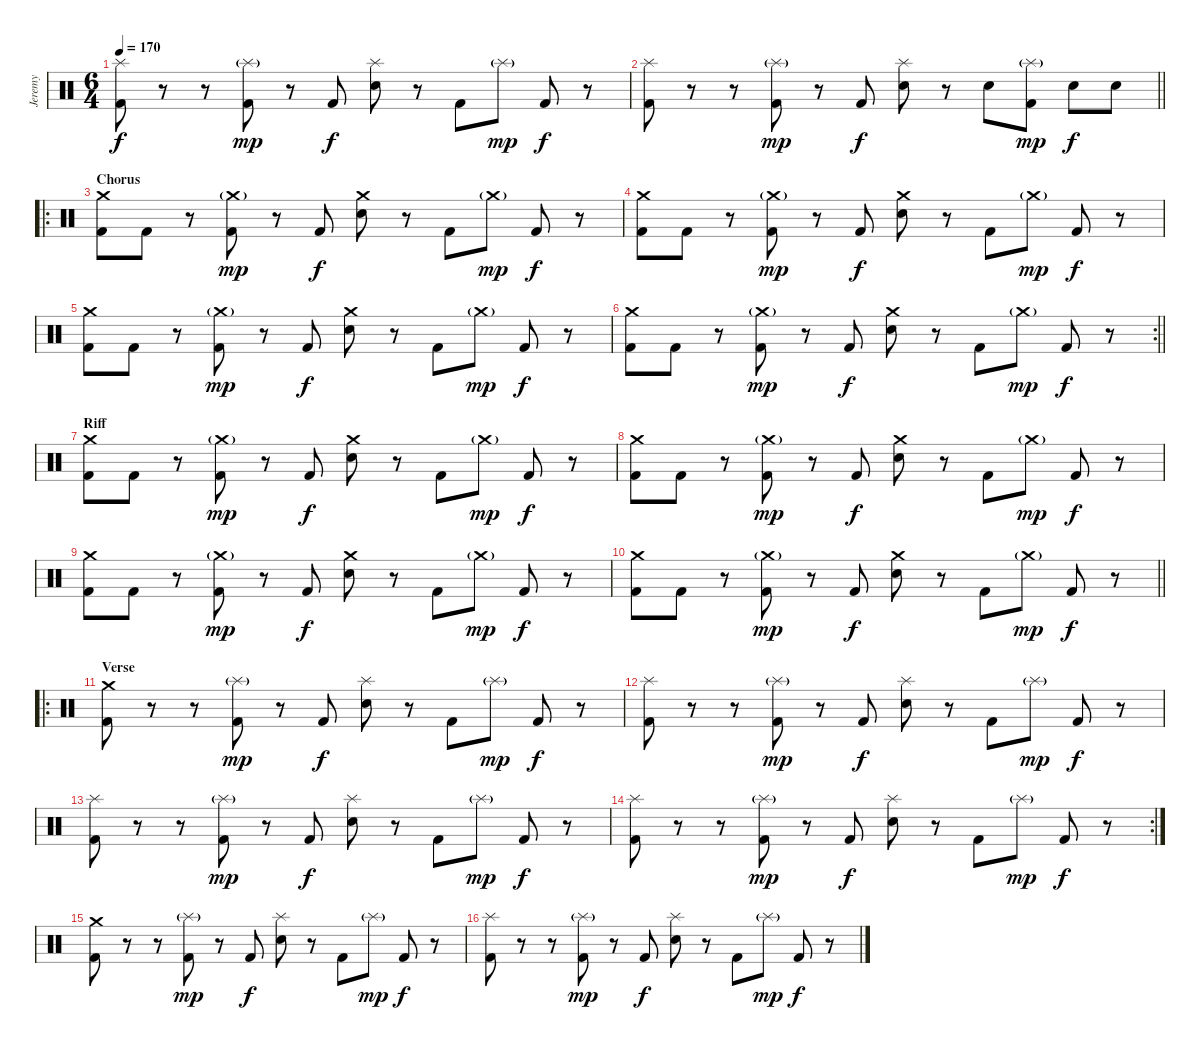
\track ("Jeremy" "Jeremy") {instrument percussion}
\staff {score}
\articulation defaults
\ts (6 4)
\tempo 170
\clef neutral
\ks c
("Splash (hit)" "Kick (hit) 2").8{dy f} r.8 r.8 ("Splash (hit)"{g} "Kick (hit) 2").8{dy mp} r.8 "Kick (hit) 2".8{dy f} ("Splash (hit)" "Electric Snare (hit)").8 r.8 "Kick (hit) 2".8 "Splash (hit)"{g}.8{dy mp} "Kick (hit) 2".8{dy f} r.8 |
\barLineRight lightlight
("Splash (hit)" "Kick (hit) 2").8 r.8 r.8 ("Splash (hit)"{g} "Kick (hit) 2").8{dy mp} r.8 "Kick (hit) 2".8{dy f} ("Splash (hit)" "Snare (hit) 2").8 r.8 "Snare (hit) 2".8 ("Splash (hit)"{g} "Kick (hit) 2").8{dy mp} "Snare (hit) 2".8{dy f} "Snare (hit) 2".8 |
\ro
\section ("" "Chorus")
("Crash medium (hit)" "Kick (hit) 2").8 "Kick (hit) 2".8 r.8 ("Crash medium (hit)"{g} "Kick (hit) 2").8{dy mp} r.8 "Kick (hit) 2".8{dy f} ("Crash medium (hit)" "Electric Snare (hit)").8 r.8 "Kick (hit) 2".8 "Crash medium (hit)"{g}.8{dy mp} "Kick (hit) 2".8{dy f} r.8 |
("Crash medium (hit)" "Kick (hit) 2").8 "Kick (hit) 2".8 r.8 ("Crash medium (hit)"{g} "Kick (hit) 2").8{dy mp} r.8 "Kick (hit) 2".8{dy f} ("Crash medium (hit)" "Electric Snare (hit)").8 r.8 "Kick (hit) 2".8 "Crash medium (hit)"{g}.8{dy mp} "Kick (hit) 2".8{dy f} r.8 |
("Crash medium (hit)" "Kick (hit) 2").8 "Kick (hit) 2".8 r.8 ("Crash medium (hit)"{g} "Kick (hit) 2").8{dy mp} r.8 "Kick (hit) 2".8{dy f} ("Crash medium (hit)" "Electric Snare (hit)").8 r.8 "Kick (hit) 2".8 "Crash medium (hit)"{g}.8{dy mp} "Kick (hit) 2".8{dy f} r.8 |
\rc 2
\barLineRight lightlight
("Crash medium (hit)" "Kick (hit) 2").8 "Kick (hit) 2".8 r.8 ("Crash medium (hit)"{g} "Kick (hit) 2").8{dy mp} r.8 "Kick (hit) 2".8{dy f} ("Crash medium (hit)" "Electric Snare (hit)").8 r.8 "Kick (hit) 2".8 "Crash medium (hit)"{g}.8{dy mp} "Kick (hit) 2".8{dy f} r.8 |
\section ("" "Riff")
("Crash medium (hit)" "Kick (hit) 2").8 "Kick (hit) 2".8 r.8 ("Crash medium (hit)"{g} "Kick (hit) 2").8{dy mp} r.8 "Kick (hit) 2".8{dy f} ("Crash medium (hit)" "Electric Snare (hit)").8 r.8 "Kick (hit) 2".8 "Crash medium (hit)"{g}.8{dy mp} "Kick (hit) 2".8{dy f} r.8 |
("Crash medium (hit)" "Kick (hit) 2").8 "Kick (hit) 2".8 r.8 ("Crash medium (hit)"{g} "Kick (hit) 2").8{dy mp} r.8 "Kick (hit) 2".8{dy f} ("Crash medium (hit)" "Electric Snare (hit)").8 r.8 "Kick (hit) 2".8 "Crash medium (hit)"{g}.8{dy mp} "Kick (hit) 2".8{dy f} r.8 |
("Crash medium (hit)" "Kick (hit) 2").8 "Kick (hit) 2".8 r.8 ("Crash medium (hit)"{g} "Kick (hit) 2").8{dy mp} r.8 "Kick (hit) 2".8{dy f} ("Crash medium (hit)" "Electric Snare (hit)").8 r.8 "Kick (hit) 2".8 "Crash medium (hit)"{g}.8{dy mp} "Kick (hit) 2".8{dy f} r.8 |
\barLineRight lightlight
("Crash medium (hit)" "Kick (hit) 2").8 "Kick (hit) 2".8 r.8 ("Crash medium (hit)"{g} "Kick (hit) 2").8{dy mp} r.8 "Kick (hit) 2".8{dy f} ("Crash medium (hit)" "Electric Snare (hit)").8 r.8 "Kick (hit) 2".8 "Crash medium (hit)"{g}.8{dy mp} "Kick (hit) 2".8{dy f} r.8 |
\ro
\section ("" "Verse")
("Crash medium (hit)" "Kick (hit) 2").8 r.8 r.8 ("Splash (hit)"{g} "Kick (hit) 2").8{dy mp} r.8 "Kick (hit) 2".8{dy f} ("Splash (hit)" "Electric Snare (hit)").8 r.8 "Kick (hit) 2".8 "Splash (hit)"{g}.8{dy mp} "Kick (hit) 2".8{dy f} r.8 |
("Splash (hit)" "Kick (hit) 2").8 r.8 r.8 ("Splash (hit)"{g} "Kick (hit) 2").8{dy mp} r.8 "Kick (hit) 2".8{dy f} ("Splash (hit)" "Electric Snare (hit)").8 r.8 "Kick (hit) 2".8 "Splash (hit)"{g}.8{dy mp} "Kick (hit) 2".8{dy f} r.8 |
("Splash (hit)" "Kick (hit) 2").8 r.8 r.8 ("Splash (hit)"{g} "Kick (hit) 2").8{dy mp} r.8 "Kick (hit) 2".8{dy f} ("Splash (hit)" "Electric Snare (hit)").8 r.8 "Kick (hit) 2".8 "Splash (hit)"{g}.8{dy mp} "Kick (hit) 2".8{dy f} r.8 |
\rc 2
("Splash (hit)" "Kick (hit) 2").8 r.8 r.8 ("Splash (hit)"{g} "Kick (hit) 2").8{dy mp} r.8 "Kick (hit) 2".8{dy f} ("Splash (hit)" "Electric Snare (hit)").8 r.8 "Kick (hit) 2".8 "Splash (hit)"{g}.8{dy mp} "Kick (hit) 2".8{dy f} r.8 |
("Crash medium (hit)" "Kick (hit) 2").8 r.8 r.8 ("Splash (hit)"{g} "Kick (hit) 2").8{dy mp} r.8 "Kick (hit) 2".8{dy f} ("Splash (hit)" "Electric Snare (hit)").8 r.8 "Kick (hit) 2".8 "Splash (hit)"{g}.8{dy mp} "Kick (hit) 2".8{dy f} r.8 |
("Splash (hit)" "Kick (hit) 2").8 r.8 r.8 ("Splash (hit)"{g} "Kick (hit) 2").8{dy mp} r.8 "Kick (hit) 2".8{dy f} ("Splash (hit)" "Electric Snare (hit)").8 r.8 "Kick (hit) 2".8 "Splash (hit)"{g}.8{dy mp} "Kick (hit) 2".8{dy f} r.8
